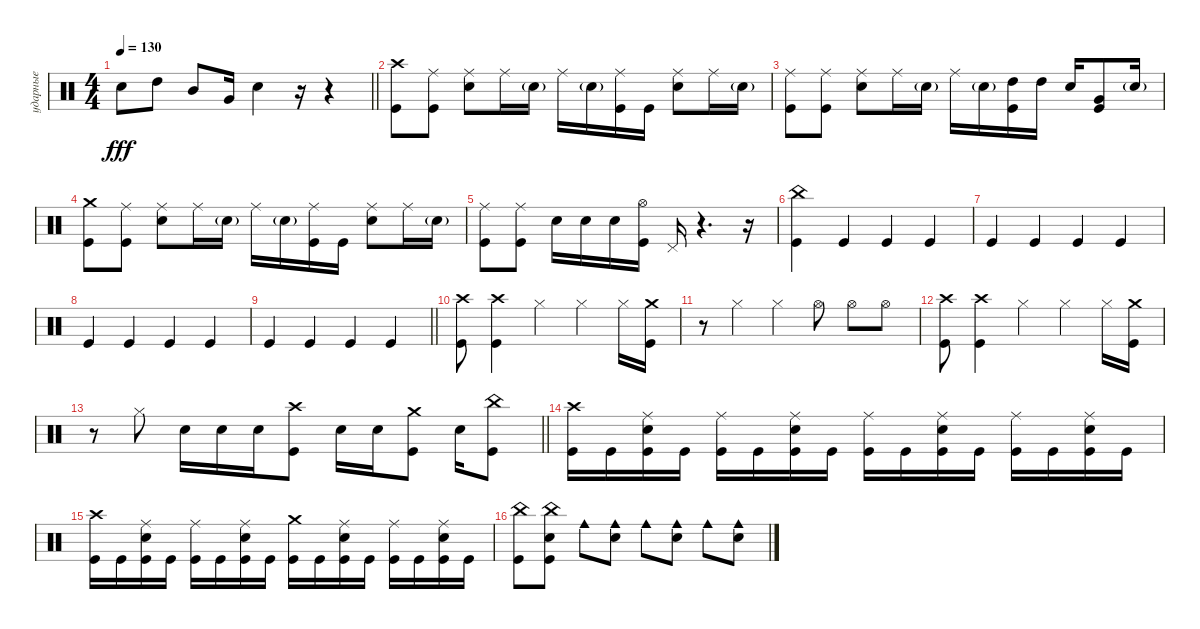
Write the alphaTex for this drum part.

\track ("ударные" "ударные") {instrument percussion}
\staff {score}
\articulation defaults
\ts (4 4)
\tempo 130
\clef neutral
\barLineRight lightlight
\ks c "Snare (hit) 2".8{dy fff} "High Tom (hit)".8 "Mid Tom (hit)".8 "Very Low Tom (hit)".16 "Snare (hit) 2".4
r.16 r.4 |
("Crash high (hit)" "Kick (hit)").8 ("Ride (middle)" "Kick (hit)").8 ("Ride (middle)" "Snare (hit) 2").8 "Ride (middle)".16 "Snare (hit) 2"{g}.16 "Ride (middle)".16 "Snare (hit) 2"{g}.16 ("Ride (middle)" "Kick (hit)").16 "Kick (hit)".16 ("Ride (middle)" "Snare (hit) 2").8 "Ride (middle)".16 "Snare (hit) 2"{g}.16 |
("Ride (middle)" "Kick (hit)").8 ("Ride (middle)" "Kick (hit)").8 ("Ride (middle)" "Snare (hit) 2").8 "Ride (middle)".16 "Snare (hit) 2"{g}.16 "Ride (middle)".16 "Snare (hit) 2"{g}.16 ("High Tom (hit)" "Kick (hit)").16 "High Tom (hit)".16 "Snare (hit) 2".16 ("Very Low Tom (hit)" "Kick (hit)").8 "Snare (hit) 2"{g}.16 |
("Crash medium (hit)" "Kick (hit)").8 ("Ride (middle)" "Kick (hit)").8 ("Ride (middle)" "Snare (hit) 2").8 "Ride (middle)".16 "Snare (hit) 2"{g}.16 "Ride (middle)".16 "Snare (hit) 2"{g}.16 ("Ride (middle)" "Kick (hit)").16 "Kick (hit)".16 ("Ride (middle)" "Snare (hit) 2").8 "Ride (middle)".16 "Snare (hit) 2"{g}.16 |
("Ride (middle)" "Kick (hit)").8 ("Ride (middle)" "Kick (hit)").8 "Snare (hit) 2".16 "Snare (hit) 2".16 "Snare (hit) 2".16 ("Hi-Hat (open)" "Kick (hit)").16 "Pedal Hi-Hat (hit)".16 r.4{d} r.16 |
("China (hit)" "Kick (hit)").4 "Kick (hit)".4 "Kick (hit)".4 "Kick (hit)".4 |
"Kick (hit)".4 "Kick (hit)".4 "Kick (hit)".4 "Kick (hit)".4 |
"Kick (hit)".4 "Kick (hit)".4 "Kick (hit)".4 "Kick (hit)".4 |
\barLineRight lightlight "Kick (hit)".4 "Kick (hit)".4 "Kick (hit)".4 "Kick (hit)".4
|
("Crash high (hit)" "Kick (hit)").8 ("Crash high (hit)" "Kick (hit)").4 "Hi-Hat (closed)".4 "Hi-Hat (closed)".4 "Hi-Hat (closed)".16 ("Crash medium (hit)" "Kick (hit)").16 |
r.8 "Hi-Hat (closed)".4 "Hi-Hat (closed)".4 "Hi-Hat (open)".8 "Hi-Hat (open)".8 "Hi-Hat (open)".8 |
("Crash high (hit)" "Kick (hit)").8 ("Crash high (hit)" "Kick (hit)").4 "Hi-Hat (closed)".4 "Hi-Hat (closed)".4 "Hi-Hat (closed)".16 ("Crash medium (hit)" "Kick (hit)").16 |
\barLineRight lightlight
r.8 "Hi-Hat (closed)".8 "Snare (hit) 2".16 "Snare (hit) 2".16 "Snare (hit) 2".16 ("Crash high (hit)" "Kick (hit)").8 "Snare (hit) 2".16 "Snare (hit) 2".16 ("Crash medium (hit)" "Kick (hit)").8 "Snare (hit) 2".16 ("China (hit)" "Kick (hit)").8 |
("Crash high (hit)" "Kick (hit)").16 "Kick (hit)".16 ("Ride (middle)" "Snare (hit) 2" "Kick (hit)").16 "Kick (hit)".16 ("Ride (middle)" "Kick (hit)").16 "Kick (hit)".16 ("Ride (middle)" "Snare (hit) 2" "Kick (hit)").16 "Kick (hit)".16 ("Ride (middle)" "Kick (hit)").16 "Kick (hit)".16 ("Ride (middle)" "Snare (hit) 2" "Kick (hit)").16 "Kick (hit)".16 ("Ride (middle)" "Kick (hit)").16 "Kick (hit)".16 ("Ride (middle)" "Snare (hit) 2" "Kick (hit)").16 "Kick (hit)".16 |
("Crash high (hit)" "Kick (hit)").16 "Kick (hit)".16 ("Ride (middle)" "Snare (hit) 2" "Kick (hit)").16 "Kick (hit)".16 ("Ride (middle)" "Kick (hit)").16 "Kick (hit)".16 ("Ride (middle)" "Snare (hit) 2" "Kick (hit)").16 "Kick (hit)".16 ("Crash medium (hit)" "Kick (hit)").16 "Kick (hit)".16 ("Ride (middle)" "Snare (hit) 2" "Kick (hit)").16 "Kick (hit)".16 ("Ride (middle)" "Kick (hit)").16 "Kick (hit)".16 ("Ride (middle)" "Snare (hit) 2" "Kick (hit)").16 "Kick (hit)".16 |
("China (hit)" "Kick (hit)").8 ("China (hit)" "Snare (hit) 2" "Kick (hit)").8 "Cowbell medium (hit)".8 ("Cowbell medium (hit)" "Snare (hit) 2").8 "Cowbell medium (hit)".8 ("Cowbell medium (hit)" "Snare (hit) 2").8 "Cowbell medium (hit)".8 ("Cowbell medium (hit)" "Snare (hit) 2").8
